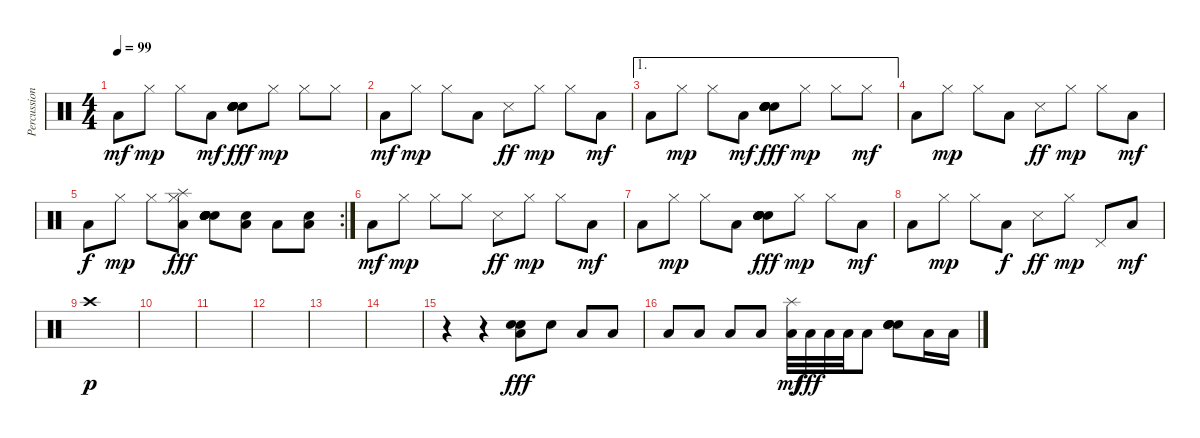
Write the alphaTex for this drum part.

\track ("Percussion" "Percussion") {instrument percussion}
\staff {score}
\articulation defaults
\ts (4 4)
\tempo 99
\clef neutral
\ks c "Low Tom (hit)".8{dy mf} "Hi-Hat (closed)".8{dy mp} "Hi-Hat (closed)".8 "Low Tom (hit)".8{dy mf}
("Snare (hit) 2" "Snare (hit) 2" "Snare (hit) 2" "Snare (hit) 2" "Electric Snare (hit)" "Snare (hit) 2").8{dy fff} "Hi-Hat (closed)".8{dy mp} "Hi-Hat (closed)".8 "Hi-Hat (closed)".8 |
"Low Tom (hit)".8{dy mf} "Hi-Hat (closed)".8{dy mp} "Hi-Hat (closed)".8 "Low Tom (hit)".8 "Snare (side stick) 3".8{dy ff} "Hi-Hat (closed)".8{dy mp} "Hi-Hat (closed)".8 "Low Tom (hit)".8{dy mf} |
\ae 1 "Low Tom (hit)".8 "Hi-Hat (closed)".8{dy mp} "Hi-Hat (closed)".8 "Low Tom (hit)".8{dy mf}
("Snare (hit) 2" "Snare (hit) 2" "Snare (hit) 2" "Snare (hit) 2" "Electric Snare (hit)" "Snare (hit) 2").8{dy fff} "Hi-Hat (closed)".8{dy mp} "Hi-Hat (closed)".8 "Hi-Hat (closed)".8{dy mf} |
"Low Tom (hit)".8 "Hi-Hat (closed)".8{dy mp} "Hi-Hat (closed)".8 "Low Tom (hit)".8 "Snare (side stick) 3".8{dy ff} "Hi-Hat (closed)".8{dy mp} "Hi-Hat (closed)".8 "Low Tom (hit)".8{dy mf} |
\rc 2 "Low Tom (hit)".8{dy f} "Hi-Hat (closed)".8{dy mp} "Hi-Hat (closed)".8
("Splash (hit)" "Hi-Hat (closed)" "Low Floor Tom (hit)").8{dy fff} ("Hand Clap (hit)" "Snare (hit) 2" "Snare (hit) 2" "Snare (hit) 2" "Electric Snare (hit)" "Snare (hit) 2").8 ("Low Floor Tom (hit)" "Snare (hit) 2").8 "Low Floor Tom (hit)".8 ("Low Floor Tom (hit)" "Snare (hit) 2").8 |
"Low Tom (hit)".8{dy mf} "Hi-Hat (closed)".8{dy mp} "Hi-Hat (closed)".8 "Hi-Hat (closed)".8 "Snare (side stick) 3".8{dy ff} "Hi-Hat (closed)".8{dy mp} "Hi-Hat (closed)".8 "Low Tom (hit)".8{dy mf} |
"Low Tom (hit)".8 "Hi-Hat (closed)".8{dy mp} "Hi-Hat (closed)".8 "Low Tom (hit)".8 ("Snare (hit) 2" "Snare (hit) 2" "Snare (hit) 2" "Snare (hit) 2" "Electric Snare (hit)" "Snare (hit) 2").8{dy fff} "Hi-Hat (closed)".8{dy mp} "Hi-Hat (closed)".8 "Low Tom (hit)".8{dy mf} |
"Low Tom (hit)".8 "Hi-Hat (closed)".8{dy mp} "Hi-Hat (closed)".8 "Low Tom (hit)".8{dy f} "Snare (side stick) 3".8{dy ff} "Hi-Hat (closed)".8{dy mp} "Pedal Hi-Hat (hit)".8 "Low Tom (hit)".8{dy mf} |
"Crash high (hit)".1{dy p} |
|
|
|
|
|
r.4 r.4 ("Snare (hit) 2" "Snare (hit) 2" "Low Floor Tom (hit)").8{dy fff} "Snare (hit) 2".8 "Low Floor Tom (hit)".8 "Low Floor Tom (hit)".8 |
"Low Floor Tom (hit)".8 "Low Floor Tom (hit)".8 "Low Floor Tom (hit)".8 "Low Floor Tom (hit)".8 ("Low Floor Tom (hit)" "Splash (hit)").32{dy mf} "Low Floor Tom (hit)".32{dy fff} "Low Floor Tom (hit)".32 "Low Floor Tom (hit)".32 "Low Floor Tom (hit)".8 ("Snare (hit) 2" "Snare (hit) 2" "Electric Snare (hit)" "Hand Clap (hit)").8 "Low Floor Tom (hit)".16 "Low Floor Tom (hit)".16
